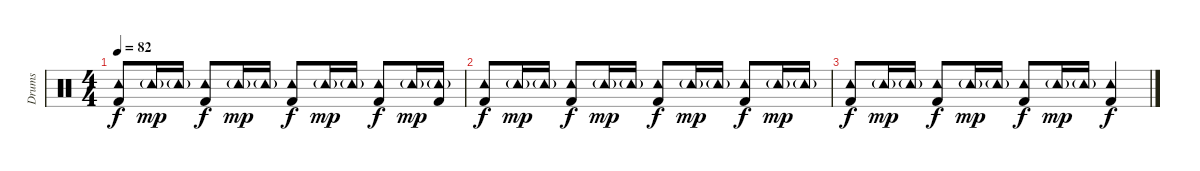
\track ("Drums" "Drums") {instrument percussion}
\staff {score}
\articulation defaults
\ts (4 4)
\tempo 82
\clef neutral
\ks c
("Tambourine (hit)" "Kick (hit) 2").8{dy f} "Tambourine (hit)"{g}.16{dy mp} "Tambourine (hit)"{g}.16 ("Tambourine (hit)" "Kick (hit) 2").8{dy f} "Tambourine (hit)"{g}.16{dy mp} "Tambourine (hit)"{g}.16 ("Tambourine (hit)" "Kick (hit) 2").8{dy f} "Tambourine (hit)"{g}.16{dy mp} "Tambourine (hit)"{g}.16 ("Tambourine (hit)" "Kick (hit) 2").8{dy f} "Tambourine (hit)"{g}.16{dy mp} ("Tambourine (hit)"{g} "Kick (hit) 2").16 |
("Tambourine (hit)" "Kick (hit) 2").8{dy f} "Tambourine (hit)"{g}.16{dy mp} "Tambourine (hit)"{g}.16 ("Tambourine (hit)" "Kick (hit) 2").8{dy f} "Tambourine (hit)"{g}.16{dy mp} "Tambourine (hit)"{g}.16 ("Tambourine (hit)" "Kick (hit) 2").8{dy f} "Tambourine (hit)"{g}.16{dy mp} "Tambourine (hit)"{g}.16 ("Tambourine (hit)" "Kick (hit) 2").8{dy f} "Tambourine (hit)"{g}.16{dy mp} "Tambourine (hit)"{g}.16 |
("Tambourine (hit)" "Kick (hit) 2").8{dy f} "Tambourine (hit)"{g}.16{dy mp} "Tambourine (hit)"{g}.16 ("Tambourine (hit)" "Kick (hit) 2").8{dy f} "Tambourine (hit)"{g}.16{dy mp} "Tambourine (hit)"{g}.16 ("Tambourine (hit)" "Kick (hit) 2").8{dy f} "Tambourine (hit)"{g}.16{dy mp} "Tambourine (hit)"{g}.16 ("Tambourine (hit)" "Kick (hit) 2").4{dy f}
